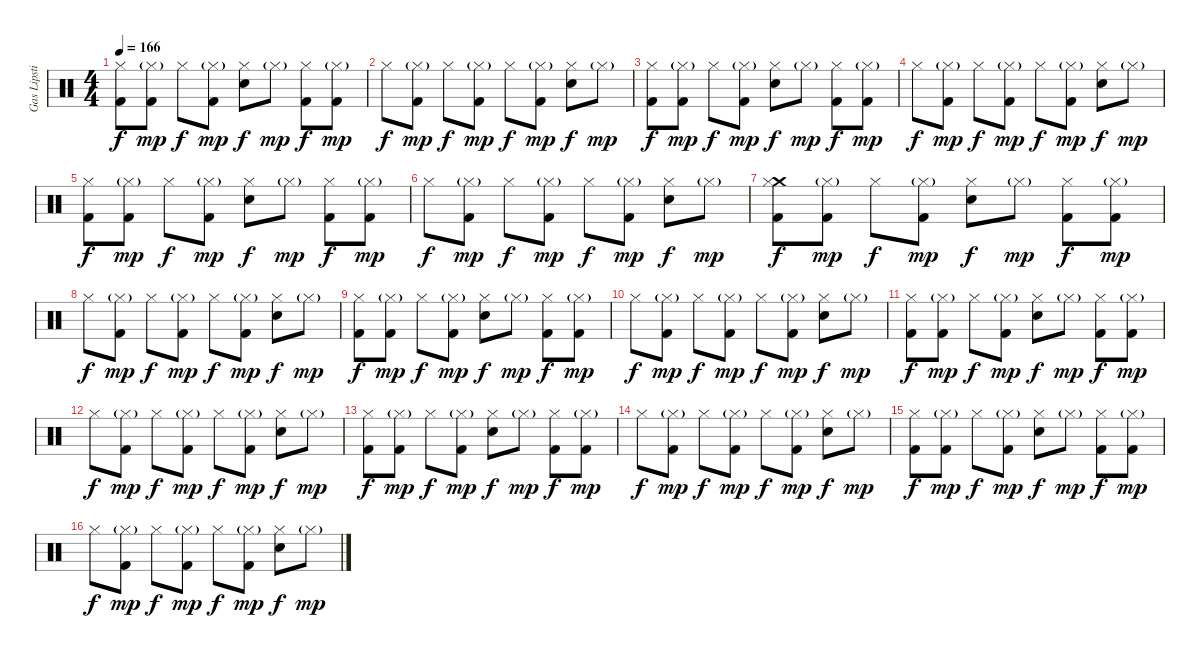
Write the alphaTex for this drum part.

\track ("Gas Lipstick (Drums)" "Gas Lipsti") {instrument percussion}
\staff {score}
\articulation defaults
\ts (4 4)
\tempo 166
\clef neutral
\ks c
("Hi-Hat (closed)" "Kick (hit) 2").8{dy f} ("Hi-Hat (closed)"{g} "Kick (hit) 2").8{dy mp} "Hi-Hat (closed)".8{dy f} ("Hi-Hat (closed)"{g} "Kick (hit) 2").8{dy mp} ("Hi-Hat (closed)" "Snare (hit) 2").8{dy f} "Hi-Hat (closed)"{g}.8{dy mp} ("Hi-Hat (closed)" "Kick (hit) 2").8{dy f} ("Hi-Hat (closed)"{g} "Kick (hit) 2").8{dy mp} |
"Hi-Hat (closed)".8{dy f} ("Hi-Hat (closed)"{g} "Kick (hit) 2").8{dy mp} "Hi-Hat (closed)".8{dy f} ("Hi-Hat (closed)"{g} "Kick (hit) 2").8{dy mp} "Hi-Hat (closed)".8{dy f} ("Hi-Hat (closed)"{g} "Kick (hit) 2").8{dy mp} ("Hi-Hat (closed)" "Snare (hit) 2").8{dy f} "Hi-Hat (closed)"{g}.8{dy mp} |
("Hi-Hat (closed)" "Kick (hit) 2").8{dy f} ("Hi-Hat (closed)"{g} "Kick (hit) 2").8{dy mp} "Hi-Hat (closed)".8{dy f} ("Hi-Hat (closed)"{g} "Kick (hit) 2").8{dy mp} ("Hi-Hat (closed)" "Snare (hit) 2").8{dy f} "Hi-Hat (closed)"{g}.8{dy mp} ("Hi-Hat (closed)" "Kick (hit) 2").8{dy f} ("Hi-Hat (closed)"{g} "Kick (hit) 2").8{dy mp} |
"Hi-Hat (closed)".8{dy f} ("Hi-Hat (closed)"{g} "Kick (hit) 2").8{dy mp} "Hi-Hat (closed)".8{dy f} ("Hi-Hat (closed)"{g} "Kick (hit) 2").8{dy mp} "Hi-Hat (closed)".8{dy f} ("Hi-Hat (closed)"{g} "Kick (hit) 2").8{dy mp} ("Hi-Hat (closed)" "Snare (hit) 2").8{dy f} "Hi-Hat (closed)"{g}.8{dy mp} |
("Hi-Hat (closed)" "Kick (hit) 2").8{dy f} ("Hi-Hat (closed)"{g} "Kick (hit) 2").8{dy mp} "Hi-Hat (closed)".8{dy f} ("Hi-Hat (closed)"{g} "Kick (hit) 2").8{dy mp} ("Hi-Hat (closed)" "Snare (hit) 2").8{dy f} "Hi-Hat (closed)"{g}.8{dy mp} ("Hi-Hat (closed)" "Kick (hit) 2").8{dy f} ("Hi-Hat (closed)"{g} "Kick (hit) 2").8{dy mp} |
"Hi-Hat (closed)".8{dy f} ("Hi-Hat (closed)"{g} "Kick (hit) 2").8{dy mp} "Hi-Hat (closed)".8{dy f} ("Hi-Hat (closed)"{g} "Kick (hit) 2").8{dy mp} "Hi-Hat (closed)".8{dy f} ("Hi-Hat (closed)"{g} "Kick (hit) 2").8{dy mp} ("Hi-Hat (closed)" "Snare (hit) 2").8{dy f} "Hi-Hat (closed)"{g}.8{dy mp} |
("Crash medium (hit)" "Hi-Hat (closed)" "Kick (hit) 2").8{dy f} ("Hi-Hat (closed)"{g} "Kick (hit) 2").8{dy mp} "Hi-Hat (closed)".8{dy f} ("Hi-Hat (closed)"{g} "Kick (hit) 2").8{dy mp} ("Hi-Hat (closed)" "Snare (hit) 2").8{dy f} "Hi-Hat (closed)"{g}.8{dy mp} ("Hi-Hat (closed)" "Kick (hit) 2").8{dy f} ("Hi-Hat (closed)"{g} "Kick (hit) 2").8{dy mp} |
"Hi-Hat (closed)".8{dy f} ("Hi-Hat (closed)"{g} "Kick (hit) 2").8{dy mp} "Hi-Hat (closed)".8{dy f} ("Hi-Hat (closed)"{g} "Kick (hit) 2").8{dy mp} "Hi-Hat (closed)".8{dy f} ("Hi-Hat (closed)"{g} "Kick (hit) 2").8{dy mp} ("Hi-Hat (closed)" "Snare (hit) 2").8{dy f} "Hi-Hat (closed)"{g}.8{dy mp} |
("Hi-Hat (closed)" "Kick (hit) 2").8{dy f} ("Hi-Hat (closed)"{g} "Kick (hit) 2").8{dy mp} "Hi-Hat (closed)".8{dy f} ("Hi-Hat (closed)"{g} "Kick (hit) 2").8{dy mp} ("Hi-Hat (closed)" "Snare (hit) 2").8{dy f} "Hi-Hat (closed)"{g}.8{dy mp} ("Hi-Hat (closed)" "Kick (hit) 2").8{dy f} ("Hi-Hat (closed)"{g} "Kick (hit) 2").8{dy mp} |
"Hi-Hat (closed)".8{dy f} ("Hi-Hat (closed)"{g} "Kick (hit) 2").8{dy mp} "Hi-Hat (closed)".8{dy f} ("Hi-Hat (closed)"{g} "Kick (hit) 2").8{dy mp} "Hi-Hat (closed)".8{dy f} ("Hi-Hat (closed)"{g} "Kick (hit) 2").8{dy mp} ("Hi-Hat (closed)" "Snare (hit) 2").8{dy f} "Hi-Hat (closed)"{g}.8{dy mp} |
("Hi-Hat (closed)" "Kick (hit) 2").8{dy f} ("Hi-Hat (closed)"{g} "Kick (hit) 2").8{dy mp} "Hi-Hat (closed)".8{dy f} ("Hi-Hat (closed)"{g} "Kick (hit) 2").8{dy mp} ("Hi-Hat (closed)" "Snare (hit) 2").8{dy f} "Hi-Hat (closed)"{g}.8{dy mp} ("Hi-Hat (closed)" "Kick (hit) 2").8{dy f} ("Hi-Hat (closed)"{g} "Kick (hit) 2").8{dy mp} |
"Hi-Hat (closed)".8{dy f} ("Hi-Hat (closed)"{g} "Kick (hit) 2").8{dy mp} "Hi-Hat (closed)".8{dy f} ("Hi-Hat (closed)"{g} "Kick (hit) 2").8{dy mp} "Hi-Hat (closed)".8{dy f} ("Hi-Hat (closed)"{g} "Kick (hit) 2").8{dy mp} ("Hi-Hat (closed)" "Snare (hit) 2").8{dy f} "Hi-Hat (closed)"{g}.8{dy mp} |
("Hi-Hat (closed)" "Kick (hit) 2").8{dy f} ("Hi-Hat (closed)"{g} "Kick (hit) 2").8{dy mp} "Hi-Hat (closed)".8{dy f} ("Hi-Hat (closed)"{g} "Kick (hit) 2").8{dy mp} ("Hi-Hat (closed)" "Snare (hit) 2").8{dy f} "Hi-Hat (closed)"{g}.8{dy mp} ("Hi-Hat (closed)" "Kick (hit) 2").8{dy f} ("Hi-Hat (closed)"{g} "Kick (hit) 2").8{dy mp} |
"Hi-Hat (closed)".8{dy f} ("Hi-Hat (closed)"{g} "Kick (hit) 2").8{dy mp} "Hi-Hat (closed)".8{dy f} ("Hi-Hat (closed)"{g} "Kick (hit) 2").8{dy mp} "Hi-Hat (closed)".8{dy f} ("Hi-Hat (closed)"{g} "Kick (hit) 2").8{dy mp} ("Hi-Hat (closed)" "Snare (hit) 2").8{dy f} "Hi-Hat (closed)"{g}.8{dy mp} |
("Hi-Hat (closed)" "Kick (hit) 2").8{dy f} ("Hi-Hat (closed)"{g} "Kick (hit) 2").8{dy mp} "Hi-Hat (closed)".8{dy f} ("Hi-Hat (closed)"{g} "Kick (hit) 2").8{dy mp} ("Hi-Hat (closed)" "Snare (hit) 2").8{dy f} "Hi-Hat (closed)"{g}.8{dy mp} ("Hi-Hat (closed)" "Kick (hit) 2").8{dy f} ("Hi-Hat (closed)"{g} "Kick (hit) 2").8{dy mp} |
"Hi-Hat (closed)".8{dy f} ("Hi-Hat (closed)"{g} "Kick (hit) 2").8{dy mp} "Hi-Hat (closed)".8{dy f} ("Hi-Hat (closed)"{g} "Kick (hit) 2").8{dy mp} "Hi-Hat (closed)".8{dy f} ("Hi-Hat (closed)"{g} "Kick (hit) 2").8{dy mp} ("Hi-Hat (closed)" "Snare (hit) 2").8{dy f} "Hi-Hat (closed)"{g}.8{dy mp}
